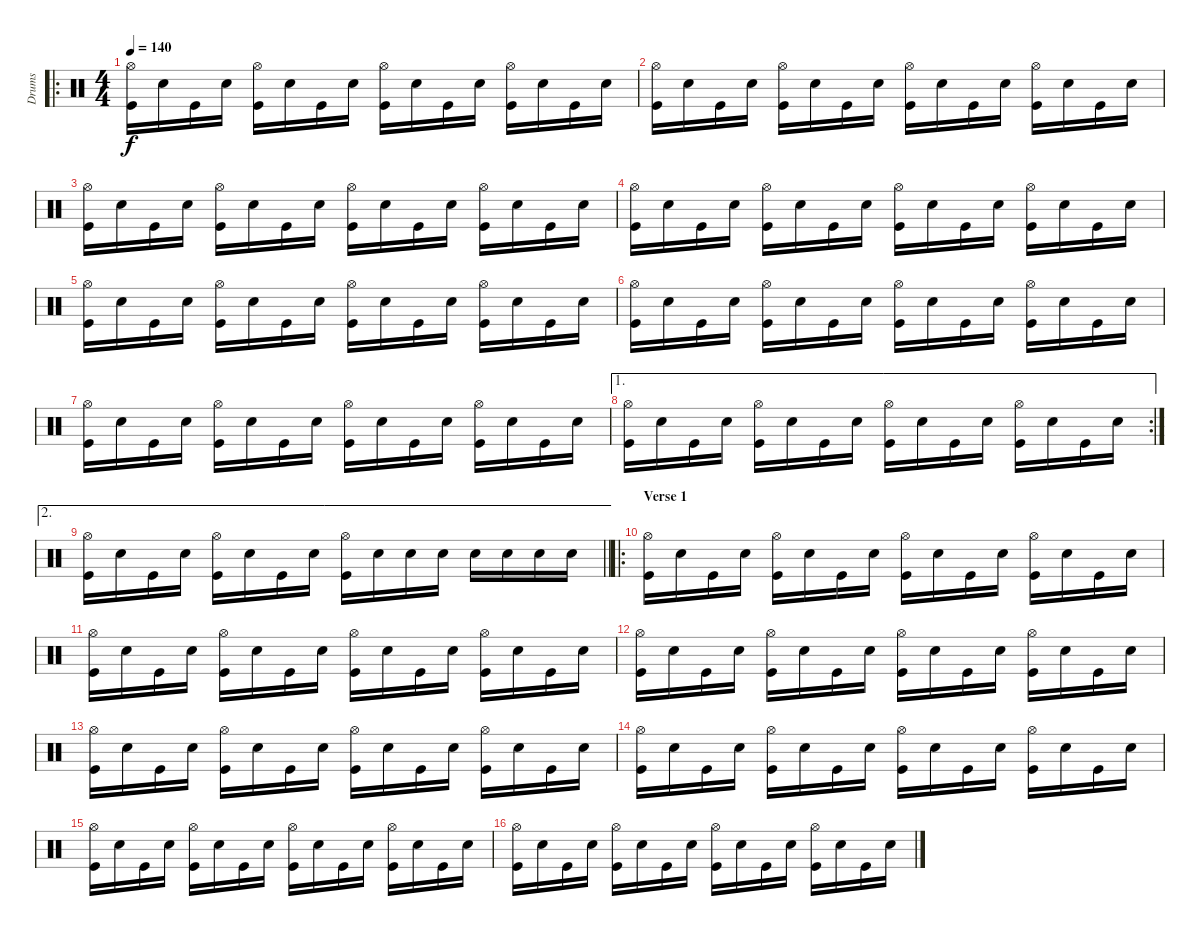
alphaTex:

\track ("Drums" "Drums") {instrument percussion}
\staff {score}
\articulation defaults
\ro
\ts (4 4)
\tempo 140
\clef neutral
\ks c
("Hi-Hat (open)" "Kick (hit)").16{dy f} "Snare (hit) 2".16 "Kick (hit)".16 "Snare (hit) 2".16 ("Hi-Hat (open)" "Kick (hit)").16 "Snare (hit) 2".16 "Kick (hit)".16 "Snare (hit) 2".16 ("Hi-Hat (open)" "Kick (hit)").16 "Snare (hit) 2".16 "Kick (hit)".16 "Snare (hit) 2".16 ("Hi-Hat (open)" "Kick (hit)").16 "Snare (hit) 2".16 "Kick (hit)".16 "Snare (hit) 2".16 |
("Hi-Hat (open)" "Kick (hit)").16 "Snare (hit) 2".16 "Kick (hit)".16 "Snare (hit) 2".16 ("Hi-Hat (open)" "Kick (hit)").16 "Snare (hit) 2".16 "Kick (hit)".16 "Snare (hit) 2".16 ("Hi-Hat (open)" "Kick (hit)").16 "Snare (hit) 2".16 "Kick (hit)".16 "Snare (hit) 2".16 ("Hi-Hat (open)" "Kick (hit)").16 "Snare (hit) 2".16 "Kick (hit)".16 "Snare (hit) 2".16 |
("Hi-Hat (open)" "Kick (hit)").16 "Snare (hit) 2".16 "Kick (hit)".16 "Snare (hit) 2".16 ("Hi-Hat (open)" "Kick (hit)").16 "Snare (hit) 2".16 "Kick (hit)".16 "Snare (hit) 2".16 ("Hi-Hat (open)" "Kick (hit)").16 "Snare (hit) 2".16 "Kick (hit)".16 "Snare (hit) 2".16 ("Hi-Hat (open)" "Kick (hit)").16 "Snare (hit) 2".16 "Kick (hit)".16 "Snare (hit) 2".16 |
("Hi-Hat (open)" "Kick (hit)").16 "Snare (hit) 2".16 "Kick (hit)".16 "Snare (hit) 2".16 ("Hi-Hat (open)" "Kick (hit)").16 "Snare (hit) 2".16 "Kick (hit)".16 "Snare (hit) 2".16 ("Hi-Hat (open)" "Kick (hit)").16 "Snare (hit) 2".16 "Kick (hit)".16 "Snare (hit) 2".16 ("Hi-Hat (open)" "Kick (hit)").16 "Snare (hit) 2".16 "Kick (hit)".16 "Snare (hit) 2".16 |
("Hi-Hat (open)" "Kick (hit)").16 "Snare (hit) 2".16 "Kick (hit)".16 "Snare (hit) 2".16 ("Hi-Hat (open)" "Kick (hit)").16 "Snare (hit) 2".16 "Kick (hit)".16 "Snare (hit) 2".16 ("Hi-Hat (open)" "Kick (hit)").16 "Snare (hit) 2".16 "Kick (hit)".16 "Snare (hit) 2".16 ("Hi-Hat (open)" "Kick (hit)").16 "Snare (hit) 2".16 "Kick (hit)".16 "Snare (hit) 2".16 |
("Hi-Hat (open)" "Kick (hit)").16 "Snare (hit) 2".16 "Kick (hit)".16 "Snare (hit) 2".16 ("Hi-Hat (open)" "Kick (hit)").16 "Snare (hit) 2".16 "Kick (hit)".16 "Snare (hit) 2".16 ("Hi-Hat (open)" "Kick (hit)").16 "Snare (hit) 2".16 "Kick (hit)".16 "Snare (hit) 2".16 ("Hi-Hat (open)" "Kick (hit)").16 "Snare (hit) 2".16 "Kick (hit)".16 "Snare (hit) 2".16 |
("Hi-Hat (open)" "Kick (hit)").16 "Snare (hit) 2".16 "Kick (hit)".16 "Snare (hit) 2".16 ("Hi-Hat (open)" "Kick (hit)").16 "Snare (hit) 2".16 "Kick (hit)".16 "Snare (hit) 2".16 ("Hi-Hat (open)" "Kick (hit)").16 "Snare (hit) 2".16 "Kick (hit)".16 "Snare (hit) 2".16 ("Hi-Hat (open)" "Kick (hit)").16 "Snare (hit) 2".16 "Kick (hit)".16 "Snare (hit) 2".16 |
\ae 1
\rc 2
("Hi-Hat (open)" "Kick (hit)").16 "Snare (hit) 2".16 "Kick (hit)".16 "Snare (hit) 2".16 ("Hi-Hat (open)" "Kick (hit)").16 "Snare (hit) 2".16 "Kick (hit)".16 "Snare (hit) 2".16 ("Hi-Hat (open)" "Kick (hit)").16 "Snare (hit) 2".16 "Kick (hit)".16 "Snare (hit) 2".16 ("Hi-Hat (open)" "Kick (hit)").16 "Snare (hit) 2".16 "Kick (hit)".16 "Snare (hit) 2".16 |
\ae 2
\barLineRight lightlight
("Hi-Hat (open)" "Kick (hit)").16 "Snare (hit) 2".16 "Kick (hit)".16 "Snare (hit) 2".16 ("Hi-Hat (open)" "Kick (hit)").16 "Snare (hit) 2".16 "Kick (hit)".16 "Snare (hit) 2".16 ("Hi-Hat (open)" "Kick (hit)").16 "Snare (hit) 2".16 "Snare (hit) 2".16 "Snare (hit) 2".16 "Snare (hit) 2".16 "Snare (hit) 2".16 "Snare (hit) 2".16 "Snare (hit) 2".16 |
\ro
\section ("" "Verse 1")
("Hi-Hat (open)" "Kick (hit)").16 "Snare (hit) 2".16 "Kick (hit)".16 "Snare (hit) 2".16 ("Hi-Hat (open)" "Kick (hit)").16 "Snare (hit) 2".16 "Kick (hit)".16 "Snare (hit) 2".16 ("Hi-Hat (open)" "Kick (hit)").16 "Snare (hit) 2".16 "Kick (hit)".16 "Snare (hit) 2".16 ("Hi-Hat (open)" "Kick (hit)").16 "Snare (hit) 2".16 "Kick (hit)".16 "Snare (hit) 2".16 |
("Hi-Hat (open)" "Kick (hit)").16 "Snare (hit) 2".16 "Kick (hit)".16 "Snare (hit) 2".16 ("Hi-Hat (open)" "Kick (hit)").16 "Snare (hit) 2".16 "Kick (hit)".16 "Snare (hit) 2".16 ("Hi-Hat (open)" "Kick (hit)").16 "Snare (hit) 2".16 "Kick (hit)".16 "Snare (hit) 2".16 ("Hi-Hat (open)" "Kick (hit)").16 "Snare (hit) 2".16 "Kick (hit)".16 "Snare (hit) 2".16 |
("Hi-Hat (open)" "Kick (hit)").16 "Snare (hit) 2".16 "Kick (hit)".16 "Snare (hit) 2".16 ("Hi-Hat (open)" "Kick (hit)").16 "Snare (hit) 2".16 "Kick (hit)".16 "Snare (hit) 2".16 ("Hi-Hat (open)" "Kick (hit)").16 "Snare (hit) 2".16 "Kick (hit)".16 "Snare (hit) 2".16 ("Hi-Hat (open)" "Kick (hit)").16 "Snare (hit) 2".16 "Kick (hit)".16 "Snare (hit) 2".16 |
("Hi-Hat (open)" "Kick (hit)").16 "Snare (hit) 2".16 "Kick (hit)".16 "Snare (hit) 2".16 ("Hi-Hat (open)" "Kick (hit)").16 "Snare (hit) 2".16 "Kick (hit)".16 "Snare (hit) 2".16 ("Hi-Hat (open)" "Kick (hit)").16 "Snare (hit) 2".16 "Kick (hit)".16 "Snare (hit) 2".16 ("Hi-Hat (open)" "Kick (hit)").16 "Snare (hit) 2".16 "Kick (hit)".16 "Snare (hit) 2".16 |
("Hi-Hat (open)" "Kick (hit)").16 "Snare (hit) 2".16 "Kick (hit)".16 "Snare (hit) 2".16 ("Hi-Hat (open)" "Kick (hit)").16 "Snare (hit) 2".16 "Kick (hit)".16 "Snare (hit) 2".16 ("Hi-Hat (open)" "Kick (hit)").16 "Snare (hit) 2".16 "Kick (hit)".16 "Snare (hit) 2".16 ("Hi-Hat (open)" "Kick (hit)").16 "Snare (hit) 2".16 "Kick (hit)".16 "Snare (hit) 2".16 |
("Hi-Hat (open)" "Kick (hit)").16 "Snare (hit) 2".16 "Kick (hit)".16 "Snare (hit) 2".16 ("Hi-Hat (open)" "Kick (hit)").16 "Snare (hit) 2".16 "Kick (hit)".16 "Snare (hit) 2".16 ("Hi-Hat (open)" "Kick (hit)").16 "Snare (hit) 2".16 "Kick (hit)".16 "Snare (hit) 2".16 ("Hi-Hat (open)" "Kick (hit)").16 "Snare (hit) 2".16 "Kick (hit)".16 "Snare (hit) 2".16 |
("Hi-Hat (open)" "Kick (hit)").16 "Snare (hit) 2".16 "Kick (hit)".16 "Snare (hit) 2".16 ("Hi-Hat (open)" "Kick (hit)").16 "Snare (hit) 2".16 "Kick (hit)".16 "Snare (hit) 2".16 ("Hi-Hat (open)" "Kick (hit)").16 "Snare (hit) 2".16 "Kick (hit)".16 "Snare (hit) 2".16 ("Hi-Hat (open)" "Kick (hit)").16 "Snare (hit) 2".16 "Kick (hit)".16 "Snare (hit) 2".16
